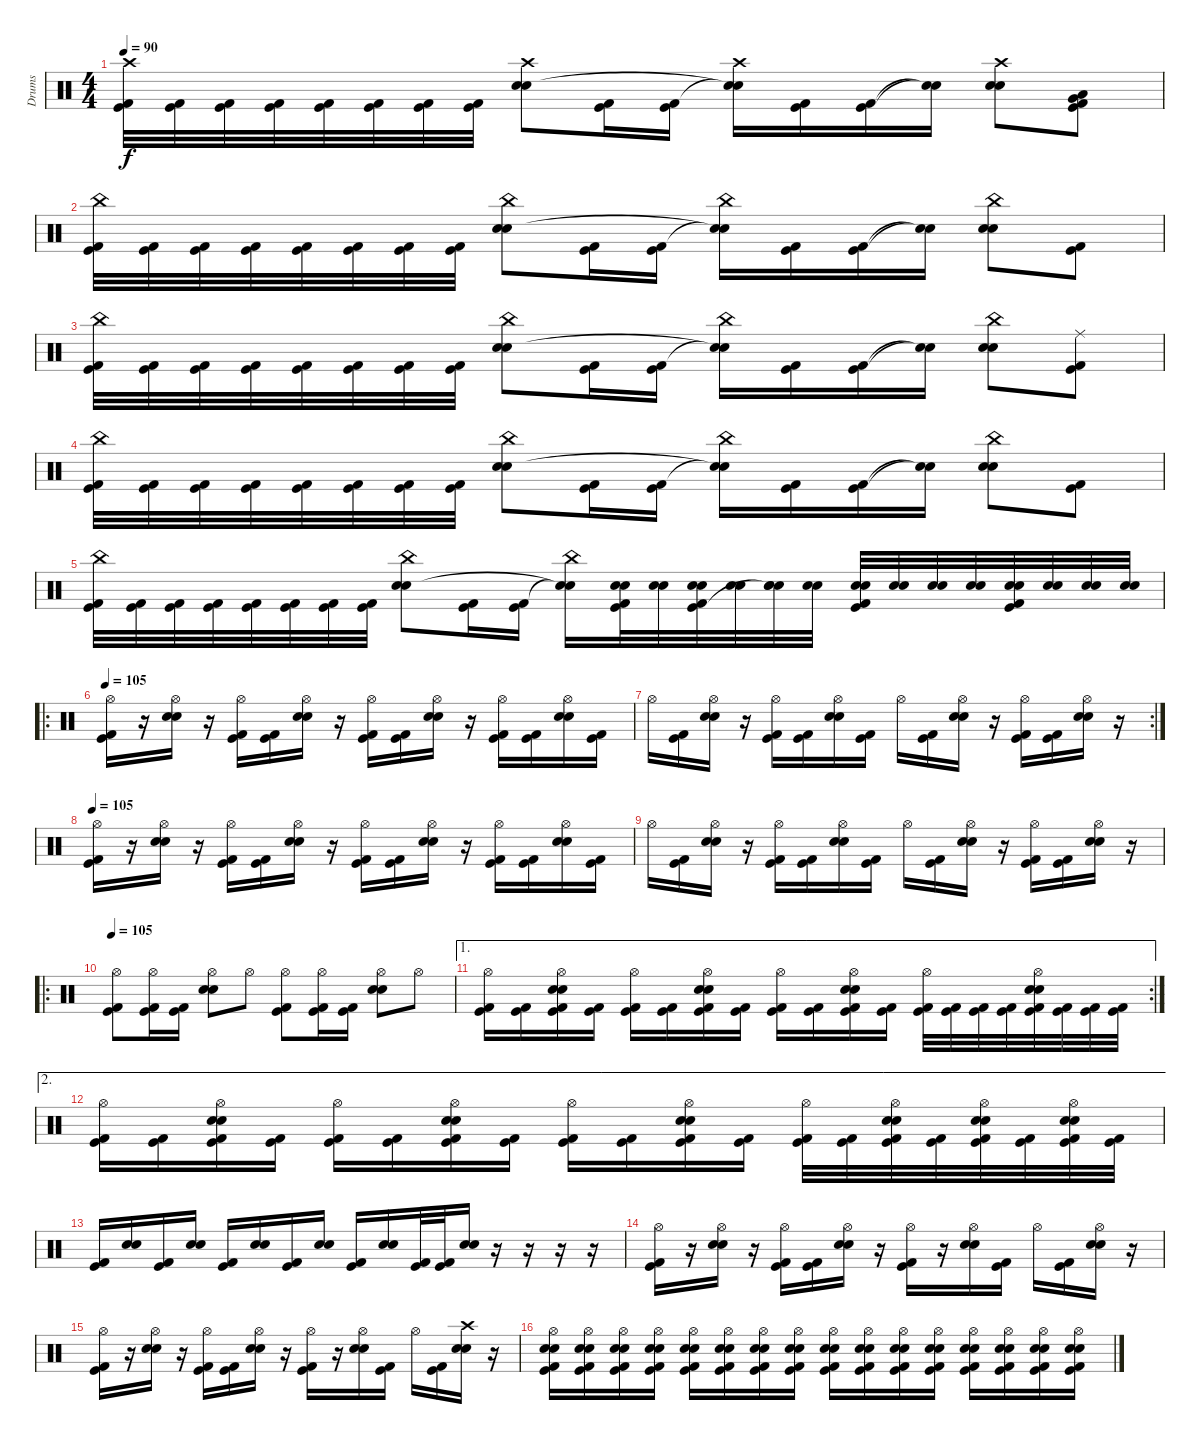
\track ("Drums" "Drums") {instrument percussion}
\staff {score}
\articulation defaults
\ts (4 4)
\tempo 90
\clef neutral
\ks c
("Crash high (hit)" "Kick (hit)" "Kick (hit) 2").32{dy f} ("Kick (hit)" "Kick (hit) 2").32 ("Kick (hit)" "Kick (hit) 2").32 ("Kick (hit)" "Kick (hit) 2").32 ("Kick (hit)" "Kick (hit) 2").32 ("Kick (hit)" "Kick (hit) 2").32 ("Kick (hit)" "Kick (hit) 2").32 ("Kick (hit)" "Kick (hit) 2").32 ("Crash high (hit)" "Electric Snare (hit)" "Snare (hit) 2").8 ("Kick (hit)" "Kick (hit) 2").16 ("Kick (hit)" "Kick (hit) 2").16 ("Crash high (hit)" "Snare (hit)"{t} "Snare (hit)"{t}).16 ("Kick (hit)" "Kick (hit) 2").16 ("Kick (hit)" "Kick (hit) 2").16 ("Snare (hit)"{t} "Snare (hit)"{t}).16 ("Crash high (hit)" "Electric Snare (hit)" "Snare (hit) 2").8 ("Very Low Tom (hit)" "Low Floor Tom (hit)" "Kick (hit)" "Kick (hit) 2").8 |
("China (hit)" "Kick (hit)" "Kick (hit) 2").32 ("Kick (hit)" "Kick (hit) 2").32 ("Kick (hit)" "Kick (hit) 2").32 ("Kick (hit)" "Kick (hit) 2").32 ("Kick (hit)" "Kick (hit) 2").32 ("Kick (hit)" "Kick (hit) 2").32 ("Kick (hit)" "Kick (hit) 2").32 ("Kick (hit)" "Kick (hit) 2").32 ("China (hit)" "Electric Snare (hit)" "Snare (hit) 2").8 ("Kick (hit)" "Kick (hit) 2").16 ("Kick (hit)" "Kick (hit) 2").16 ("China (hit)" "Snare (hit)"{t} "Snare (hit)"{t}).16 ("Kick (hit)" "Kick (hit) 2").16 ("Kick (hit)" "Kick (hit) 2").16 ("Snare (hit)"{t} "Snare (hit)"{t}).16 ("China (hit)" "Electric Snare (hit)" "Snare (hit) 2").8 ("Kick (hit)" "Kick (hit) 2").8 |
("China (hit)" "Kick (hit)" "Kick (hit) 2").32 ("Kick (hit)" "Kick (hit) 2").32 ("Kick (hit)" "Kick (hit) 2").32 ("Kick (hit)" "Kick (hit) 2").32 ("Kick (hit)" "Kick (hit) 2").32 ("Kick (hit)" "Kick (hit) 2").32 ("Kick (hit)" "Kick (hit) 2").32 ("Kick (hit)" "Kick (hit) 2").32 ("China (hit)" "Electric Snare (hit)" "Snare (hit) 2").8 ("Kick (hit)" "Kick (hit) 2").16 ("Kick (hit)" "Kick (hit) 2").16 ("China (hit)" "Snare (hit)"{t} "Snare (hit)"{t}).16 ("Kick (hit)" "Kick (hit) 2").16 ("Kick (hit)" "Kick (hit) 2").16 ("Snare (hit)"{t} "Snare (hit)"{t}).16 ("China (hit)" "Electric Snare (hit)" "Snare (hit) 2").8 ("Ride (middle)" "Kick (hit)" "Kick (hit) 2").8 |
("China (hit)" "Kick (hit)" "Kick (hit) 2").32 ("Kick (hit)" "Kick (hit) 2").32 ("Kick (hit)" "Kick (hit) 2").32 ("Kick (hit)" "Kick (hit) 2").32 ("Kick (hit)" "Kick (hit) 2").32 ("Kick (hit)" "Kick (hit) 2").32 ("Kick (hit)" "Kick (hit) 2").32 ("Kick (hit)" "Kick (hit) 2").32 ("China (hit)" "Electric Snare (hit)" "Snare (hit) 2").8 ("Kick (hit)" "Kick (hit) 2").16 ("Kick (hit)" "Kick (hit) 2").16 ("China (hit)" "Snare (hit)"{t} "Snare (hit)"{t}).16 ("Kick (hit)" "Kick (hit) 2").16 ("Kick (hit)" "Kick (hit) 2").16 ("Snare (hit)"{t} "Snare (hit)"{t}).16 ("China (hit)" "Electric Snare (hit)" "Snare (hit) 2").8 ("Kick (hit)" "Kick (hit) 2").8 |
("China (hit)" "Kick (hit)" "Kick (hit) 2").32 ("Kick (hit)" "Kick (hit) 2").32 ("Kick (hit)" "Kick (hit) 2").32 ("Kick (hit)" "Kick (hit) 2").32 ("Kick (hit)" "Kick (hit) 2").32 ("Kick (hit)" "Kick (hit) 2").32 ("Kick (hit)" "Kick (hit) 2").32 ("Kick (hit)" "Kick (hit) 2").32 ("China (hit)" "Electric Snare (hit)" "Snare (hit) 2").8 ("Kick (hit)" "Kick (hit) 2").16 ("Kick (hit)" "Kick (hit) 2").16 ("China (hit)" "Snare (hit)"{t} "Snare (hit)"{t}).16 ("Electric Snare (hit)" "Snare (hit) 2" "Kick (hit)" "Kick (hit) 2").32 ("Electric Snare (hit)" "Snare (hit) 2").32 ("Electric Snare (hit)" "Snare (hit) 2" "Kick (hit)" "Kick (hit) 2").32 ("Electric Snare (hit)" "Snare (hit) 2").32 ("Electric Snare (hit)" "Snare (hit) 2" "Snare (hit)"{t}).32 ("Electric Snare (hit)" "Snare (hit) 2").32 ("Electric Snare (hit)" "Snare (hit) 2" "Kick (hit)" "Kick (hit) 2").32 ("Electric Snare (hit)" "Snare (hit) 2").32 ("Electric Snare (hit)" "Snare (hit) 2").32 ("Electric Snare (hit)" "Snare (hit) 2").32 ("Electric Snare (hit)" "Snare (hit) 2" "Kick (hit)" "Kick (hit) 2").32 ("Electric Snare (hit)" "Snare (hit) 2").32 ("Electric Snare (hit)" "Snare (hit) 2").32 ("Electric Snare (hit)" "Snare (hit) 2").32 |
\ro
\tempo 105
("Hi-Hat (open)" "Kick (hit)" "Kick (hit) 2").16 r.16 ("Hi-Hat (open)" "Electric Snare (hit)" "Snare (hit) 2").16 r.16 ("Hi-Hat (open)" "Kick (hit)" "Kick (hit) 2").16 ("Kick (hit)" "Kick (hit) 2").16 ("Hi-Hat (open)" "Electric Snare (hit)" "Snare (hit) 2").16 r.16 ("Hi-Hat (open)" "Kick (hit)" "Kick (hit) 2").16 ("Kick (hit)" "Kick (hit) 2").16 ("Hi-Hat (open)" "Electric Snare (hit)" "Snare (hit) 2").16 r.16 ("Hi-Hat (open)" "Kick (hit)" "Kick (hit) 2").16 ("Kick (hit)" "Kick (hit) 2").16 ("Hi-Hat (open)" "Electric Snare (hit)" "Snare (hit) 2").16 ("Kick (hit)" "Kick (hit) 2").16 |
\rc 2 "Hi-Hat (open)".16
("Kick (hit)" "Kick (hit) 2").16 ("Hi-Hat (open)" "Snare (hit) 2" "Electric Snare (hit)").16 r.16 ("Hi-Hat (open)" "Kick (hit)" "Kick (hit) 2").16 ("Kick (hit)" "Kick (hit) 2").16 ("Hi-Hat (open)" "Electric Snare (hit)" "Snare (hit) 2").16 ("Kick (hit)" "Kick (hit) 2").16 "Hi-Hat (open)".16 ("Kick (hit)" "Kick (hit) 2").16 ("Hi-Hat (open)" "Electric Snare (hit)" "Snare (hit) 2").16 r.16 ("Hi-Hat (open)" "Kick (hit)" "Kick (hit) 2").16 ("Kick (hit)" "Kick (hit) 2").16 ("Hi-Hat (open)" "Snare (hit) 2" "Electric Snare (hit)").16 r.16 |
\tempo 105
("Hi-Hat (open)" "Kick (hit)" "Kick (hit) 2").16 r.16 ("Hi-Hat (open)" "Electric Snare (hit)" "Snare (hit) 2").16 r.16 ("Hi-Hat (open)" "Kick (hit)" "Kick (hit) 2").16 ("Kick (hit)" "Kick (hit) 2").16 ("Hi-Hat (open)" "Electric Snare (hit)" "Snare (hit) 2").16 r.16 ("Hi-Hat (open)" "Kick (hit)" "Kick (hit) 2").16 ("Kick (hit)" "Kick (hit) 2").16 ("Hi-Hat (open)" "Electric Snare (hit)" "Snare (hit) 2").16 r.16 ("Hi-Hat (open)" "Kick (hit)" "Kick (hit) 2").16 ("Kick (hit)" "Kick (hit) 2").16 ("Hi-Hat (open)" "Electric Snare (hit)" "Snare (hit) 2").16 ("Kick (hit)" "Kick (hit) 2").16 |
"Hi-Hat (open)".16 ("Kick (hit)" "Kick (hit) 2").16 ("Hi-Hat (open)" "Snare (hit) 2" "Electric Snare (hit)").16 r.16 ("Hi-Hat (open)" "Kick (hit)" "Kick (hit) 2").16 ("Kick (hit)" "Kick (hit) 2").16 ("Hi-Hat (open)" "Electric Snare (hit)" "Snare (hit) 2").16 ("Kick (hit)" "Kick (hit) 2").16 "Hi-Hat (open)".16 ("Kick (hit)" "Kick (hit) 2").16 ("Hi-Hat (open)" "Electric Snare (hit)" "Snare (hit) 2").16 r.16 ("Hi-Hat (open)" "Kick (hit)" "Kick (hit) 2").16 ("Kick (hit)" "Kick (hit) 2").16 ("Hi-Hat (open)" "Snare (hit) 2" "Electric Snare (hit)").16 r.16 |
\ro
\tempo 105
("Hi-Hat (open)" "Kick (hit)" "Kick (hit) 2").8 ("Hi-Hat (open)" "Kick (hit)" "Kick (hit) 2").16 ("Kick (hit)" "Kick (hit) 2").16 ("Hi-Hat (open)" "Electric Snare (hit)" "Snare (hit) 2").8 "Hi-Hat (open)".8 ("Hi-Hat (open)" "Kick (hit)" "Kick (hit) 2").8 ("Hi-Hat (open)" "Kick (hit)" "Kick (hit) 2").16 ("Kick (hit)" "Kick (hit) 2").16 ("Hi-Hat (open)" "Electric Snare (hit)" "Snare (hit) 2").8 "Hi-Hat (open)".8 |
\ae 1
\rc 2
("Hi-Hat (open)" "Kick (hit)" "Kick (hit) 2").16 ("Kick (hit)" "Kick (hit) 2").16 ("Electric Snare (hit)" "Hi-Hat (open)" "Snare (hit) 2" "Kick (hit)" "Kick (hit) 2").16 ("Kick (hit)" "Kick (hit) 2").16 ("Hi-Hat (open)" "Kick (hit)" "Kick (hit) 2").16 ("Kick (hit)" "Kick (hit) 2").16 ("Electric Snare (hit)" "Hi-Hat (open)" "Snare (hit) 2" "Kick (hit)" "Kick (hit) 2").16 ("Kick (hit)" "Kick (hit) 2").16 ("Hi-Hat (open)" "Kick (hit)" "Kick (hit) 2").16 ("Kick (hit)" "Kick (hit) 2").16 ("Electric Snare (hit)" "Hi-Hat (open)" "Snare (hit) 2" "Kick (hit)" "Kick (hit) 2").16 ("Kick (hit)" "Kick (hit) 2").16 ("Hi-Hat (open)" "Kick (hit)" "Kick (hit) 2").32 ("Kick (hit)" "Kick (hit) 2").32 ("Kick (hit)" "Kick (hit) 2").32 ("Kick (hit)" "Kick (hit) 2").32 ("Electric Snare (hit)" "Hi-Hat (open)" "Snare (hit) 2" "Kick (hit)" "Kick (hit) 2").32 ("Kick (hit)" "Kick (hit) 2").32 ("Kick (hit)" "Kick (hit) 2").32 ("Kick (hit)" "Kick (hit) 2").32 |
\ae 2
("Hi-Hat (open)" "Kick (hit)" "Kick (hit) 2").16 ("Kick (hit)" "Kick (hit) 2").16 ("Electric Snare (hit)" "Hi-Hat (open)" "Snare (hit) 2" "Kick (hit)" "Kick (hit) 2").16 ("Kick (hit)" "Kick (hit) 2").16 ("Hi-Hat (open)" "Kick (hit)" "Kick (hit) 2").16 ("Kick (hit)" "Kick (hit) 2").16 ("Electric Snare (hit)" "Hi-Hat (open)" "Snare (hit) 2" "Kick (hit)" "Kick (hit) 2").16 ("Kick (hit)" "Kick (hit) 2").16 ("Hi-Hat (open)" "Kick (hit)" "Kick (hit) 2").16 ("Kick (hit)" "Kick (hit) 2").16 ("Electric Snare (hit)" "Hi-Hat (open)" "Snare (hit) 2" "Kick (hit)" "Kick (hit) 2").16 ("Kick (hit)" "Kick (hit) 2").16 ("Hi-Hat (open)" "Kick (hit)" "Kick (hit) 2").32 ("Kick (hit)" "Kick (hit) 2").32 ("Hi-Hat (open)" "Electric Snare (hit)" "Snare (hit) 2" "Kick (hit)" "Kick (hit) 2").32 ("Kick (hit)" "Kick (hit) 2").32 ("Electric Snare (hit)" "Hi-Hat (open)" "Snare (hit) 2" "Kick (hit)" "Kick (hit) 2").32 ("Kick (hit)" "Kick (hit) 2").32 ("Hi-Hat (open)" "Electric Snare (hit)" "Snare (hit) 2" "Kick (hit)" "Kick (hit) 2").32 ("Kick (hit)" "Kick (hit) 2").32 |
("Kick (hit)" "Kick (hit) 2").16 ("Electric Snare (hit)" "Snare (hit) 2").16 ("Kick (hit)" "Kick (hit) 2").16 ("Electric Snare (hit)" "Snare (hit) 2").16 ("Kick (hit)" "Kick (hit) 2").16 ("Electric Snare (hit)" "Snare (hit) 2").16 ("Kick (hit)" "Kick (hit) 2").16 ("Electric Snare (hit)" "Snare (hit) 2").16 ("Kick (hit)" "Kick (hit) 2").16 ("Electric Snare (hit)" "Snare (hit) 2").16 ("Kick (hit)" "Kick (hit) 2").32 ("Kick (hit)" "Kick (hit) 2").32 ("Electric Snare (hit)" "Snare (hit) 2").16 r.16 r.16 r.16 r.16 |
("Hi-Hat (open)" "Kick (hit)" "Kick (hit) 2").16 r.16 ("Hi-Hat (open)" "Electric Snare (hit)" "Snare (hit) 2").16 r.16 ("Hi-Hat (open)" "Kick (hit)" "Kick (hit) 2").16 ("Kick (hit)" "Kick (hit) 2").16 ("Hi-Hat (open)" "Electric Snare (hit)" "Snare (hit) 2").16 r.16 ("Hi-Hat (open)" "Kick (hit) 2" "Kick (hit)").16 r.16 ("Hi-Hat (open)" "Electric Snare (hit)" "Snare (hit) 2").16 ("Kick (hit)" "Kick (hit) 2").16 "Hi-Hat (open)".16 ("Kick (hit) 2" "Kick (hit)").16 ("Hi-Hat (open)" "Electric Snare (hit)" "Snare (hit) 2").16 r.16 |
("Hi-Hat (open)" "Kick (hit)" "Kick (hit) 2").16 r.16 ("Hi-Hat (open)" "Electric Snare (hit)" "Snare (hit) 2").16 r.16 ("Hi-Hat (open)" "Kick (hit)" "Kick (hit) 2").16 ("Kick (hit)" "Kick (hit) 2").16 ("Hi-Hat (open)" "Electric Snare (hit)" "Snare (hit) 2").16 r.16 ("Hi-Hat (open)" "Kick (hit) 2" "Kick (hit)").16 r.16 ("Hi-Hat (open)" "Electric Snare (hit)" "Snare (hit) 2").16 ("Kick (hit)" "Kick (hit) 2").16 "Hi-Hat (open)".16 ("Kick (hit) 2" "Kick (hit)").16 ("Crash high (hit)" "Electric Snare (hit)" "Snare (hit) 2").16 r.16 |
("Hi-Hat (open)" "Electric Snare (hit)" "Snare (hit) 2" "Kick (hit)" "Kick (hit) 2").16 ("Hi-Hat (open)" "Electric Snare (hit)" "Snare (hit) 2" "Kick (hit)" "Kick (hit) 2").16 ("Hi-Hat (open)" "Electric Snare (hit)" "Snare (hit) 2" "Kick (hit)" "Kick (hit) 2").16 ("Hi-Hat (open)" "Electric Snare (hit)" "Snare (hit) 2" "Kick (hit)" "Kick (hit) 2").16 ("Hi-Hat (open)" "Electric Snare (hit)" "Snare (hit) 2" "Kick (hit)" "Kick (hit) 2").16 ("Hi-Hat (open)" "Electric Snare (hit)" "Snare (hit) 2" "Kick (hit)" "Kick (hit) 2").16 ("Hi-Hat (open)" "Electric Snare (hit)" "Snare (hit) 2" "Kick (hit)" "Kick (hit) 2").16 ("Hi-Hat (open)" "Electric Snare (hit)" "Snare (hit) 2" "Kick (hit)" "Kick (hit) 2").16 ("Hi-Hat (open)" "Electric Snare (hit)" "Snare (hit) 2" "Kick (hit)" "Kick (hit) 2").16 ("Hi-Hat (open)" "Electric Snare (hit)" "Snare (hit) 2" "Kick (hit)" "Kick (hit) 2").16 ("Hi-Hat (open)" "Electric Snare (hit)" "Snare (hit) 2" "Kick (hit)" "Kick (hit) 2").16 ("Hi-Hat (open)" "Electric Snare (hit)" "Snare (hit) 2" "Kick (hit)" "Kick (hit) 2").16 ("Hi-Hat (open)" "Electric Snare (hit)" "Snare (hit) 2" "Kick (hit)" "Kick (hit) 2").16 ("Hi-Hat (open)" "Electric Snare (hit)" "Snare (hit) 2" "Kick (hit)" "Kick (hit) 2").16 ("Hi-Hat (open)" "Electric Snare (hit)" "Snare (hit) 2" "Kick (hit)" "Kick (hit) 2").16 ("Hi-Hat (open)" "Electric Snare (hit)" "Snare (hit) 2" "Kick (hit)" "Kick (hit) 2").16
